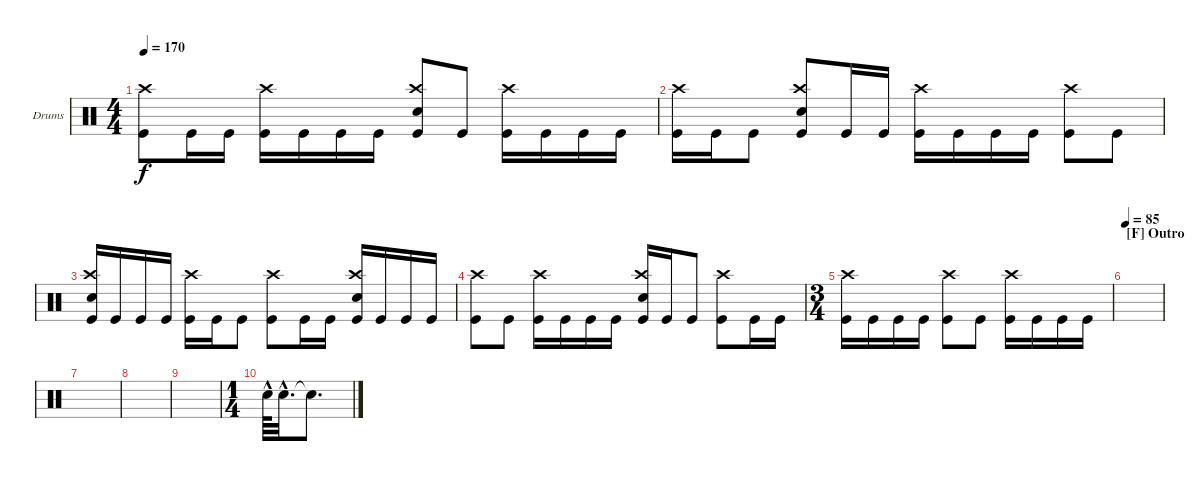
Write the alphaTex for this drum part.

\defaultSystemsLayout 4
\bracketExtendMode groupsimilarinstruments
\firstSystemTrackNameOrientation horizontal
\otherSystemsTrackNameOrientation horizontal
\track ("Drumkit" "Drums") {instrument percussion}
\staff {score}
\articulation defaults
\ts (4 4)
\tempo 170
\clef neutral
\ks c
("Kick (hit)" "Crash high (hit)").8{dy f} "Kick (hit)".16 "Kick (hit)".16 ("Kick (hit)" "Crash high (hit)").16 "Kick (hit)".16 "Kick (hit)".16 "Kick (hit)".16 ("Kick (hit)" "Snare (hit) 2" "Crash high (hit)").8 "Kick (hit)".8 ("Kick (hit)" "Crash high (hit)").16 "Kick (hit)".16 "Kick (hit)".16 "Kick (hit)".16 |
("Kick (hit)" "Crash high (hit)").16 "Kick (hit)".16 "Kick (hit)".8 ("Kick (hit)" "Snare (hit) 2" "Crash high (hit)").8 "Kick (hit)".16 "Kick (hit)".16 ("Kick (hit)" "Crash high (hit)").16 "Kick (hit)".16 "Kick (hit)".16 "Kick (hit)".16 ("Kick (hit)" "Crash high (hit)").8 "Kick (hit)".8 |
("Kick (hit)" "Snare (hit) 2" "Crash high (hit)").16 "Kick (hit)".16 "Kick (hit)".16 "Kick (hit)".16 ("Kick (hit)" "Crash high (hit)").16 "Kick (hit)".16 "Kick (hit)".8 ("Kick (hit)" "Crash high (hit)").8 "Kick (hit)".16 "Kick (hit)".16 ("Kick (hit)" "Snare (hit) 2" "Crash high (hit)").16 "Kick (hit)".16 "Kick (hit)".16 "Kick (hit)".16 |
("Kick (hit)" "Crash high (hit)").8 "Kick (hit)".8 ("Kick (hit)" "Crash high (hit)").16 "Kick (hit)".16 "Kick (hit)".16 "Kick (hit)".16 ("Kick (hit)" "Snare (hit) 2" "Crash high (hit)").16 "Kick (hit)".16 "Kick (hit)".8 ("Kick (hit)" "Crash high (hit)").8 "Kick (hit)".16 "Kick (hit)".16 |
\ts (3 4)
("Kick (hit)" "Crash high (hit)").16 "Kick (hit)".16 "Kick (hit)".16 "Kick (hit)".16 ("Kick (hit)" "Crash high (hit)").8 "Kick (hit)".8 ("Kick (hit)" "Crash high (hit)").16 "Kick (hit)".16 "Kick (hit)".16 "Kick (hit)".16 |
\section ("F" "Outro")
\tempo 85
|
|
|
|
\ts (1 4)
"Snare (hit) 2"{hac}.64 "Snare (hit) 2"{hac}.32{d} "Snare (hit) 2"{t}.8{d}
